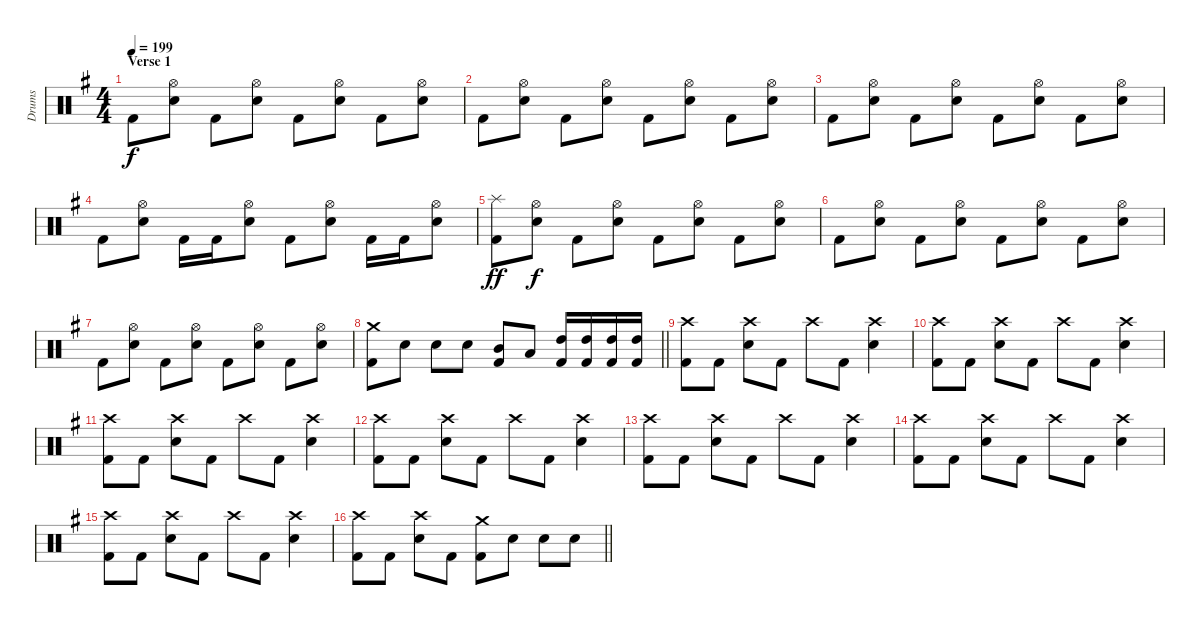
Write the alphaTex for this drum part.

\track ("Drums" "Drums") {instrument percussion}
\staff {score}
\articulation defaults
\ts (4 4)
\section ("" "Verse 1")
\tempo 199
\clef neutral
\ks eminor "Kick (hit) 2".8{dy f}
("Hi-Hat (open)" "Electric Snare (hit)").8 "Kick (hit) 2".8 ("Hi-Hat (open)" "Electric Snare (hit)").8 "Kick (hit) 2".8 ("Hi-Hat (open)" "Electric Snare (hit)").8 "Kick (hit) 2".8 ("Hi-Hat (open)" "Electric Snare (hit)").8 |
"Kick (hit) 2".8 ("Hi-Hat (open)" "Electric Snare (hit)").8 "Kick (hit) 2".8 ("Hi-Hat (open)" "Electric Snare (hit)").8 "Kick (hit) 2".8 ("Hi-Hat (open)" "Electric Snare (hit)").8 "Kick (hit) 2".8 ("Hi-Hat (open)" "Electric Snare (hit)").8 |
"Kick (hit) 2".8 ("Hi-Hat (open)" "Electric Snare (hit)").8 "Kick (hit) 2".8 ("Hi-Hat (open)" "Electric Snare (hit)").8 "Kick (hit) 2".8 ("Hi-Hat (open)" "Electric Snare (hit)").8 "Kick (hit) 2".8 ("Hi-Hat (open)" "Electric Snare (hit)").8 |
"Kick (hit) 2".8 ("Hi-Hat (open)" "Electric Snare (hit)").8 "Kick (hit) 2".16 "Kick (hit) 2".16 ("Hi-Hat (open)" "Electric Snare (hit)").8 "Kick (hit) 2".8 ("Hi-Hat (open)" "Electric Snare (hit)").8 "Kick (hit) 2".16 "Kick (hit) 2".16 ("Hi-Hat (open)" "Electric Snare (hit)").8 |
("Splash (hit)" "Kick (hit) 2").8{dy ff} ("Hi-Hat (open)" "Electric Snare (hit)").8{dy f} "Kick (hit) 2".8 ("Hi-Hat (open)" "Electric Snare (hit)").8 "Kick (hit) 2".8 ("Hi-Hat (open)" "Electric Snare (hit)").8 "Kick (hit) 2".8 ("Hi-Hat (open)" "Electric Snare (hit)").8 |
"Kick (hit) 2".8 ("Hi-Hat (open)" "Electric Snare (hit)").8 "Kick (hit) 2".8 ("Hi-Hat (open)" "Electric Snare (hit)").8 "Kick (hit) 2".8 ("Hi-Hat (open)" "Electric Snare (hit)").8 "Kick (hit) 2".8 ("Hi-Hat (open)" "Electric Snare (hit)").8 |
"Kick (hit) 2".8 ("Hi-Hat (open)" "Electric Snare (hit)").8 "Kick (hit) 2".8 ("Hi-Hat (open)" "Electric Snare (hit)").8 "Kick (hit) 2".8 ("Hi-Hat (open)" "Electric Snare (hit)").8 "Kick (hit) 2".8 ("Hi-Hat (open)" "Electric Snare (hit)").8 |
\barLineRight lightlight
("Crash medium (hit)" "Kick (hit) 2").8 "Electric Snare (hit)".8 "Electric Snare (hit)".8 "Electric Snare (hit)".8 ("Mid Tom (hit)" "Kick (hit) 2").8 "Low Tom (hit)".8 ("High Tom (hit)" "Kick (hit) 2").16 ("High Tom (hit)" "Kick (hit) 2").16 ("High Tom (hit)" "Kick (hit) 2").16 ("High Tom (hit)" "Kick (hit) 2").16 |
("Crash high (hit)" "Kick (hit) 2").8 "Kick (hit) 2".8 ("Crash high (hit)" "Electric Snare (hit)").8 "Kick (hit) 2".8 "Crash high (hit)".8 "Kick (hit) 2".8 ("Crash high (hit)" "Electric Snare (hit)").4 |
("Crash high (hit)" "Kick (hit) 2").8 "Kick (hit) 2".8 ("Crash high (hit)" "Electric Snare (hit)").8 "Kick (hit) 2".8 "Crash high (hit)".8 "Kick (hit) 2".8 ("Crash high (hit)" "Electric Snare (hit)").4 |
("Crash high (hit)" "Kick (hit) 2").8 "Kick (hit) 2".8 ("Crash high (hit)" "Electric Snare (hit)").8 "Kick (hit) 2".8 "Crash high (hit)".8 "Kick (hit) 2".8 ("Crash high (hit)" "Electric Snare (hit)").4 |
("Crash high (hit)" "Kick (hit) 2").8 "Kick (hit) 2".8 ("Crash high (hit)" "Electric Snare (hit)").8 "Kick (hit) 2".8 "Crash high (hit)".8 "Kick (hit) 2".8 ("Crash high (hit)" "Electric Snare (hit)").4 |
("Crash high (hit)" "Kick (hit) 2").8 "Kick (hit) 2".8 ("Crash high (hit)" "Electric Snare (hit)").8 "Kick (hit) 2".8 "Crash high (hit)".8 "Kick (hit) 2".8 ("Crash high (hit)" "Electric Snare (hit)").4 |
("Crash high (hit)" "Kick (hit) 2").8 "Kick (hit) 2".8 ("Crash high (hit)" "Electric Snare (hit)").8 "Kick (hit) 2".8 "Crash high (hit)".8 "Kick (hit) 2".8 ("Crash high (hit)" "Electric Snare (hit)").4 |
("Crash high (hit)" "Kick (hit) 2").8 "Kick (hit) 2".8 ("Crash high (hit)" "Electric Snare (hit)").8 "Kick (hit) 2".8 "Crash high (hit)".8 "Kick (hit) 2".8 ("Crash high (hit)" "Electric Snare (hit)").4 |
\barLineRight lightlight
("Crash high (hit)" "Kick (hit) 2").8 "Kick (hit) 2".8 ("Crash high (hit)" "Electric Snare (hit)").8 "Kick (hit) 2".8 ("Crash medium (hit)" "Kick (hit) 2").8 "Electric Snare (hit)".8 "Electric Snare (hit)".8 "Electric Snare (hit)".8
